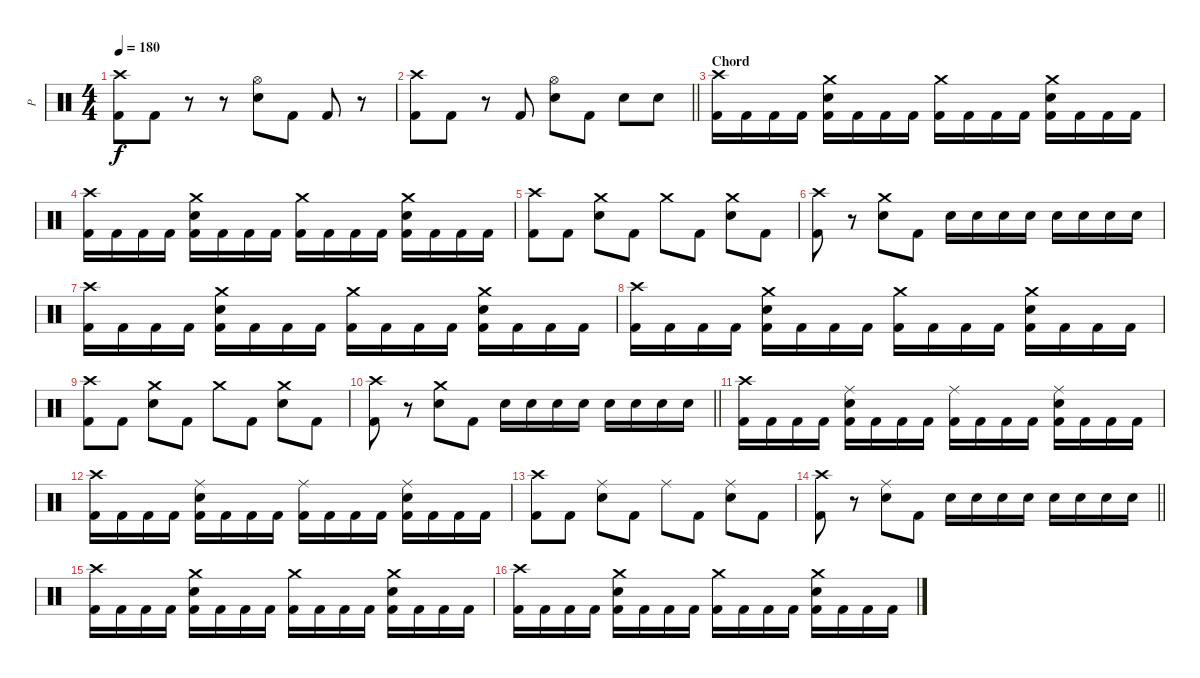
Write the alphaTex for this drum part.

\track ("P" "P") {instrument percussion}
\staff {score}
\articulation defaults
\ts (4 4)
\tempo 180
\clef neutral
\ks c
("Crash high (hit)" "Kick (hit) 2").8{dy f} "Kick (hit) 2".8 r.8 r.8 ("Hi-Hat (open)" "Electric Snare (hit)").8 "Kick (hit) 2".8 "Kick (hit) 2".8 r.8 |
\barLineRight lightlight
("Crash high (hit)" "Kick (hit) 2").8 "Kick (hit) 2".8 r.8 "Kick (hit) 2".8 ("Hi-Hat (open)" "Electric Snare (hit)").8 "Kick (hit) 2".8 "Electric Snare (hit)".8 "Electric Snare (hit)".8 |
\section ("" "Chord")
("Crash high (hit)" "Kick (hit) 2").16 "Kick (hit) 2".16 "Kick (hit) 2".16 "Kick (hit) 2".16 ("Crash medium (hit)" "Electric Snare (hit)" "Kick (hit) 2").16 "Kick (hit) 2".16 "Kick (hit) 2".16 "Kick (hit) 2".16 ("Crash medium (hit)" "Kick (hit) 2").16 "Kick (hit) 2".16 "Kick (hit) 2".16 "Kick (hit) 2".16 ("Crash medium (hit)" "Electric Snare (hit)" "Kick (hit) 2").16 "Kick (hit) 2".16 "Kick (hit) 2".16 "Kick (hit) 2".16 |
("Crash high (hit)" "Kick (hit) 2").16 "Kick (hit) 2".16 "Kick (hit) 2".16 "Kick (hit) 2".16 ("Crash medium (hit)" "Electric Snare (hit)" "Kick (hit) 2").16 "Kick (hit) 2".16 "Kick (hit) 2".16 "Kick (hit) 2".16 ("Crash medium (hit)" "Kick (hit) 2").16 "Kick (hit) 2".16 "Kick (hit) 2".16 "Kick (hit) 2".16 ("Crash medium (hit)" "Electric Snare (hit)" "Kick (hit) 2").16 "Kick (hit) 2".16 "Kick (hit) 2".16 "Kick (hit) 2".16 |
("Crash high (hit)" "Kick (hit) 2").8 "Kick (hit) 2".8 ("Crash medium (hit)" "Electric Snare (hit)").8 "Kick (hit) 2".8 "Crash medium (hit)".8 "Kick (hit) 2".8 ("Crash medium (hit)" "Electric Snare (hit)").8 "Kick (hit) 2".8 |
("Crash high (hit)" "Kick (hit) 2").8 r.8 ("Crash medium (hit)" "Electric Snare (hit)").8 "Kick (hit) 2".8 "Electric Snare (hit)".16 "Electric Snare (hit)".16 "Electric Snare (hit)".16 "Electric Snare (hit)".16 "Electric Snare (hit)".16 "Electric Snare (hit)".16 "Electric Snare (hit)".16 "Electric Snare (hit)".16 |
("Crash high (hit)" "Kick (hit) 2").16 "Kick (hit) 2".16 "Kick (hit) 2".16 "Kick (hit) 2".16 ("Crash medium (hit)" "Electric Snare (hit)" "Kick (hit) 2").16 "Kick (hit) 2".16 "Kick (hit) 2".16 "Kick (hit) 2".16 ("Crash medium (hit)" "Kick (hit) 2").16 "Kick (hit) 2".16 "Kick (hit) 2".16 "Kick (hit) 2".16 ("Crash medium (hit)" "Electric Snare (hit)" "Kick (hit) 2").16 "Kick (hit) 2".16 "Kick (hit) 2".16 "Kick (hit) 2".16 |
("Crash high (hit)" "Kick (hit) 2").16 "Kick (hit) 2".16 "Kick (hit) 2".16 "Kick (hit) 2".16 ("Crash medium (hit)" "Electric Snare (hit)" "Kick (hit) 2").16 "Kick (hit) 2".16 "Kick (hit) 2".16 "Kick (hit) 2".16 ("Crash medium (hit)" "Kick (hit) 2").16 "Kick (hit) 2".16 "Kick (hit) 2".16 "Kick (hit) 2".16 ("Crash medium (hit)" "Electric Snare (hit)" "Kick (hit) 2").16 "Kick (hit) 2".16 "Kick (hit) 2".16 "Kick (hit) 2".16 |
("Crash high (hit)" "Kick (hit) 2").8 "Kick (hit) 2".8 ("Crash medium (hit)" "Electric Snare (hit)").8 "Kick (hit) 2".8 "Crash medium (hit)".8 "Kick (hit) 2".8 ("Crash medium (hit)" "Electric Snare (hit)").8 "Kick (hit) 2".8 |
\barLineRight lightlight
("Crash high (hit)" "Kick (hit) 2").8 r.8 ("Crash medium (hit)" "Electric Snare (hit)").8 "Kick (hit) 2".8 "Electric Snare (hit)".16 "Electric Snare (hit)".16 "Electric Snare (hit)".16 "Electric Snare (hit)".16 "Electric Snare (hit)".16 "Electric Snare (hit)".16 "Electric Snare (hit)".16 "Electric Snare (hit)".16 |
("Crash high (hit)" "Kick (hit) 2").16 "Kick (hit) 2".16 "Kick (hit) 2".16 "Kick (hit) 2".16 ("Ride (middle)" "Electric Snare (hit)" "Kick (hit) 2").16 "Kick (hit) 2".16 "Kick (hit) 2".16 "Kick (hit) 2".16 ("Ride (middle)" "Kick (hit) 2").16 "Kick (hit) 2".16 "Kick (hit) 2".16 "Kick (hit) 2".16 ("Ride (middle)" "Electric Snare (hit)" "Kick (hit) 2").16 "Kick (hit) 2".16 "Kick (hit) 2".16 "Kick (hit) 2".16 |
("Crash high (hit)" "Kick (hit) 2").16 "Kick (hit) 2".16 "Kick (hit) 2".16 "Kick (hit) 2".16 ("Ride (middle)" "Electric Snare (hit)" "Kick (hit) 2").16 "Kick (hit) 2".16 "Kick (hit) 2".16 "Kick (hit) 2".16 ("Ride (middle)" "Kick (hit) 2").16 "Kick (hit) 2".16 "Kick (hit) 2".16 "Kick (hit) 2".16 ("Ride (middle)" "Electric Snare (hit)" "Kick (hit) 2").16 "Kick (hit) 2".16 "Kick (hit) 2".16 "Kick (hit) 2".16 |
("Crash high (hit)" "Kick (hit) 2").8 "Kick (hit) 2".8 ("Ride (middle)" "Electric Snare (hit)").8 "Kick (hit) 2".8 "Ride (middle)".8 "Kick (hit) 2".8 ("Ride (middle)" "Electric Snare (hit)").8 "Kick (hit) 2".8 |
\barLineRight lightlight
("Crash high (hit)" "Kick (hit) 2").8 r.8 ("Ride (middle)" "Electric Snare (hit)").8 "Kick (hit) 2".8 "Electric Snare (hit)".16 "Electric Snare (hit)".16 "Electric Snare (hit)".16 "Electric Snare (hit)".16 "Electric Snare (hit)".16 "Electric Snare (hit)".16 "Electric Snare (hit)".16 "Electric Snare (hit)".16 |
("Crash high (hit)" "Kick (hit) 2").16 "Kick (hit) 2".16 "Kick (hit) 2".16 "Kick (hit) 2".16 ("Crash medium (hit)" "Electric Snare (hit)" "Kick (hit) 2").16 "Kick (hit) 2".16 "Kick (hit) 2".16 "Kick (hit) 2".16 ("Crash medium (hit)" "Kick (hit) 2").16 "Kick (hit) 2".16 "Kick (hit) 2".16 "Kick (hit) 2".16 ("Crash medium (hit)" "Electric Snare (hit)" "Kick (hit) 2").16 "Kick (hit) 2".16 "Kick (hit) 2".16 "Kick (hit) 2".16 |
("Crash high (hit)" "Kick (hit) 2").16 "Kick (hit) 2".16 "Kick (hit) 2".16 "Kick (hit) 2".16 ("Crash medium (hit)" "Electric Snare (hit)" "Kick (hit) 2").16 "Kick (hit) 2".16 "Kick (hit) 2".16 "Kick (hit) 2".16 ("Crash medium (hit)" "Kick (hit) 2").16 "Kick (hit) 2".16 "Kick (hit) 2".16 "Kick (hit) 2".16 ("Crash medium (hit)" "Electric Snare (hit)" "Kick (hit) 2").16 "Kick (hit) 2".16 "Kick (hit) 2".16 "Kick (hit) 2".16
